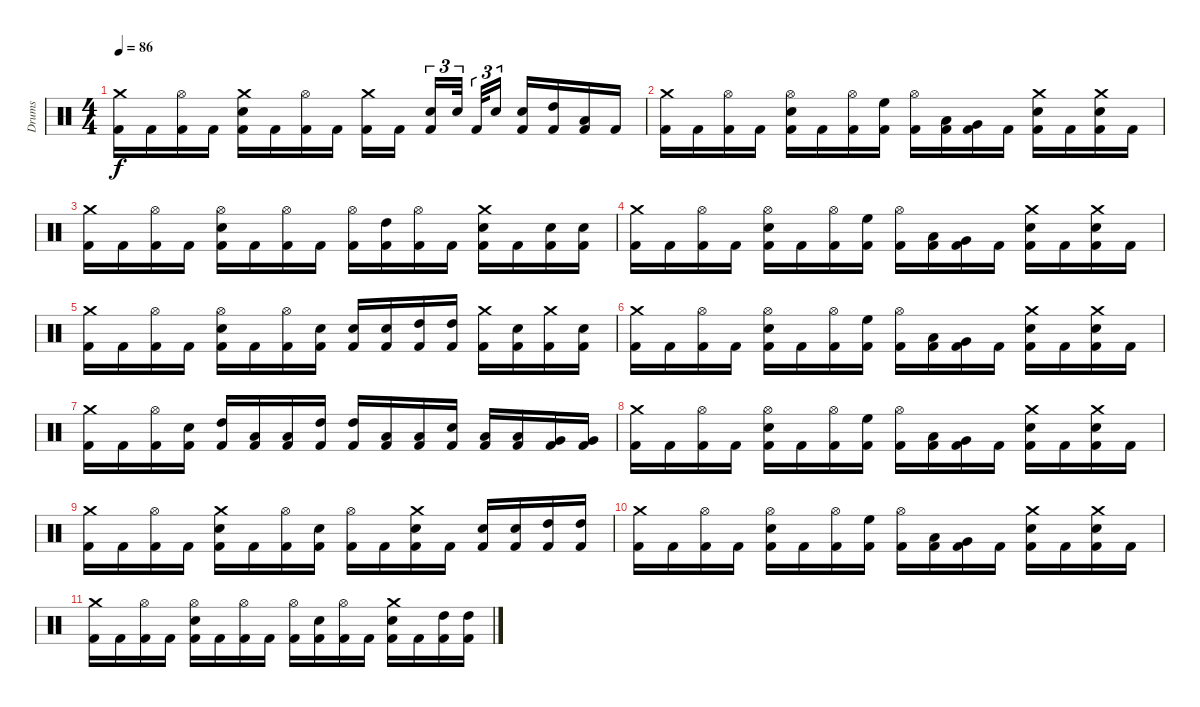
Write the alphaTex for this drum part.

\track ("Drums" "Drums") {instrument percussion}
\staff {score}
\articulation defaults
\ts (4 4)
\tempo 86
\clef neutral
\ks c
("Crash medium (hit)" "Kick (hit) 2").16{dy f} "Kick (hit) 2".16 ("Hi-Hat (open)" "Kick (hit) 2").16 "Kick (hit) 2".16 ("Snare (hit) 2" "Crash medium (hit)" "Kick (hit) 2").16 "Kick (hit) 2".16 ("Hi-Hat (open)" "Kick (hit) 2").16 "Kick (hit) 2".16 ("Crash medium (hit)" "Kick (hit) 2").16 "Kick (hit) 2".16{beam splitsecondary} ("Snare (hit) 2" "Kick (hit) 2").16{tu (3 2)} "Snare (hit) 2".32{tu (3 2) beam splitsecondary} "Kick (hit) 2".32{tu (3 2)} "Snare (hit) 2".16{tu (3 2)} ("Snare (hit) 2" "Kick (hit) 2").16 ("Kick (hit) 2" "High Tom (hit)").16 ("Kick (hit) 2" "Low Tom (hit)").16 "Kick (hit) 2".16 |
("Crash medium (hit)" "Kick (hit) 2").16 "Kick (hit) 2".16 ("Hi-Hat (open)" "Kick (hit) 2").16 "Kick (hit) 2".16 ("Hi-Hat (open)" "Snare (hit) 2" "Kick (hit) 2").16 "Kick (hit) 2".16 ("Hi-Hat (open)" "Kick (hit) 2").16 ("High Floor Tom (hit)" "Kick (hit) 2").16 ("Hi-Hat (open)" "Kick (hit) 2").16 ("Low Tom (hit)" "Kick (hit) 2").16 ("Very Low Tom (hit)" "Kick (hit) 2").16 "Kick (hit) 2".16 ("Crash medium (hit)" "Snare (hit) 2" "Kick (hit) 2").16 "Kick (hit) 2".16 ("Crash medium (hit)" "Snare (hit) 2" "Kick (hit) 2").16 "Kick (hit) 2".16 |
("Crash medium (hit)" "Kick (hit) 2").16{volume 16} "Kick (hit) 2".16 ("Hi-Hat (open)" "Kick (hit) 2").16{volume 16} "Kick (hit) 2".16{volume 16} ("Snare (hit) 2" "Hi-Hat (open)" "Kick (hit) 2").16{volume 16} "Kick (hit) 2".16{volume 15} ("Hi-Hat (open)" "Kick (hit) 2").16{volume 15} "Kick (hit) 2".16{volume 15} ("Hi-Hat (open)" "Kick (hit) 2").16{volume 15} ("High Tom (hit)" "Kick (hit) 2").16 ("Hi-Hat (open)" "Kick (hit) 2").16{volume 15} "Kick (hit) 2".16{volume 15} ("Snare (hit) 2" "Crash medium (hit)" "Kick (hit) 2").16{volume 15} "Kick (hit) 2".16{volume 14} ("Snare (hit) 2" "Kick (hit) 2").16{volume 14} ("Snare (hit) 2" "Kick (hit) 2").16{volume 14} |
("Crash medium (hit)" "Kick (hit) 2").16{volume 14} "Kick (hit) 2".16{volume 14} ("Hi-Hat (open)" "Kick (hit) 2").16 "Kick (hit) 2".16{volume 14} ("Hi-Hat (open)" "Snare (hit) 2" "Kick (hit) 2").16{volume 14} "Kick (hit) 2".16{volume 14} ("Hi-Hat (open)" "Kick (hit) 2").16{volume 14} ("High Floor Tom (hit)" "Kick (hit) 2").16{volume 13} ("Hi-Hat (open)" "Kick (hit) 2").16{volume 13} ("Low Tom (hit)" "Kick (hit) 2").16{volume 13} ("Very Low Tom (hit)" "Kick (hit) 2").16 "Kick (hit) 2".16{volume 13} ("Crash medium (hit)" "Snare (hit) 2" "Kick (hit) 2").16{volume 13} "Kick (hit) 2".16{volume 13} ("Crash medium (hit)" "Snare (hit) 2" "Kick (hit) 2").16{volume 13} "Kick (hit) 2".16{volume 12} |
("Crash medium (hit)" "Kick (hit) 2").16{volume 12} "Kick (hit) 2".16{volume 12} ("Hi-Hat (open)" "Kick (hit) 2").16{volume 12} "Kick (hit) 2".16 ("Snare (hit) 2" "Hi-Hat (open)" "Kick (hit) 2").16{volume 12} "Kick (hit) 2".16{volume 12} ("Hi-Hat (open)" "Kick (hit) 2").16{volume 12} ("Snare (hit) 2" "Kick (hit) 2").16{volume 12} ("Snare (hit) 2" "Kick (hit) 2").16{volume 12} ("Snare (hit) 2" "Kick (hit) 2").16{volume 11} ("High Tom (hit)" "Kick (hit) 2").16{volume 11} ("High Tom (hit)" "Kick (hit) 2").16 ("Crash medium (hit)" "Kick (hit) 2").16{volume 11} ("Snare (hit) 2" "Kick (hit) 2").16{volume 11} ("Crash medium (hit)" "Kick (hit) 2").16{volume 11} ("Snare (hit) 2" "Kick (hit) 2").16{volume 11} |
("Crash medium (hit)" "Kick (hit) 2").16{volume 11} "Kick (hit) 2".16{volume 10} ("Hi-Hat (open)" "Kick (hit) 2").16{volume 10} "Kick (hit) 2".16{volume 10} ("Hi-Hat (open)" "Snare (hit) 2" "Kick (hit) 2").16 "Kick (hit) 2".16{volume 10} ("Hi-Hat (open)" "Kick (hit) 2").16{volume 10} ("High Floor Tom (hit)" "Kick (hit) 2").16{volume 10} ("Hi-Hat (open)" "Kick (hit) 2").16{volume 10} ("Low Tom (hit)" "Kick (hit) 2").16{volume 10} ("Very Low Tom (hit)" "Kick (hit) 2").16{volume 10} "Kick (hit) 2".16{volume 9} ("Crash medium (hit)" "Snare (hit) 2" "Kick (hit) 2").16 "Kick (hit) 2".16{volume 9} ("Crash medium (hit)" "Snare (hit) 2" "Kick (hit) 2").16{volume 9} "Kick (hit) 2".16{volume 9} |
("Crash medium (hit)" "Kick (hit) 2").16{volume 9} "Kick (hit) 2".16{volume 9} ("Hi-Hat (open)" "Kick (hit) 2").16{volume 9} ("Snare (hit) 2" "Kick (hit) 2").16{volume 8} ("High Tom (hit)" "Kick (hit) 2").16{volume 8} ("Low Tom (hit)" "Kick (hit) 2").16 ("Low Tom (hit)" "Kick (hit) 2").16{volume 8} ("High Tom (hit)" "Kick (hit) 2").16{volume 8} ("High Tom (hit)" "Kick (hit) 2").16{volume 8} ("Low Tom (hit)" "Kick (hit) 2").16{volume 8} ("Low Tom (hit)" "Kick (hit) 2").16{volume 8} ("Snare (hit) 2" "Kick (hit) 2").16{volume 8} ("Low Tom (hit)" "Kick (hit) 2").16{volume 8} ("Low Tom (hit)" "Kick (hit) 2").16 ("Very Low Tom (hit)" "Kick (hit) 2").16{volume 7} ("Very Low Tom (hit)" "Kick (hit) 2").16{volume 7} |
("Crash medium (hit)" "Kick (hit) 2").16{volume 7} "Kick (hit) 2".16{volume 7} ("Hi-Hat (open)" "Kick (hit) 2").16{volume 7} "Kick (hit) 2".16{volume 7} ("Hi-Hat (open)" "Snare (hit) 2" "Kick (hit) 2").16{volume 7} "Kick (hit) 2".16{volume 6} ("Hi-Hat (open)" "Kick (hit) 2").16 ("High Floor Tom (hit)" "Kick (hit) 2").16{volume 6} ("Hi-Hat (open)" "Kick (hit) 2").16{volume 6} ("Low Tom (hit)" "Kick (hit) 2").16{volume 6} ("Very Low Tom (hit)" "Kick (hit) 2").16{volume 6} "Kick (hit) 2".16{volume 6} ("Crash medium (hit)" "Snare (hit) 2" "Kick (hit) 2").16{volume 6} "Kick (hit) 2".16{volume 6} ("Crash medium (hit)" "Snare (hit) 2" "Kick (hit) 2").16 "Kick (hit) 2".16{volume 6} |
("Crash medium (hit)" "Kick (hit) 2").16{volume 5} "Kick (hit) 2".16{volume 5} ("Hi-Hat (open)" "Kick (hit) 2").16{volume 5} "Kick (hit) 2".16{volume 5} ("Crash medium (hit)" "Snare (hit) 2" "Kick (hit) 2").16{volume 5} "Kick (hit) 2".16{volume 5} ("Hi-Hat (open)" "Kick (hit) 2").16{volume 5} ("Snare (hit) 2" "Kick (hit) 2").16 ("Hi-Hat (open)" "Kick (hit) 2").16{volume 4} "Kick (hit) 2".16{volume 4} ("Crash medium (hit)" "Snare (hit) 2" "Kick (hit) 2").16{volume 4} "Kick (hit) 2".16{volume 4} ("Snare (hit) 2" "Kick (hit) 2").16{volume 4} ("Snare (hit) 2" "Kick (hit) 2").16{volume 4} ("High Tom (hit)" "Kick (hit) 2").16{volume 4} ("High Tom (hit)" "Kick (hit) 2").16 |
("Crash medium (hit)" "Kick (hit) 2").16{volume 4} "Kick (hit) 2".16{volume 4} ("Hi-Hat (open)" "Kick (hit) 2").16{volume 3} "Kick (hit) 2".16{volume 3} ("Hi-Hat (open)" "Snare (hit) 2" "Kick (hit) 2").16{volume 3} "Kick (hit) 2".16{volume 3} ("Hi-Hat (open)" "Kick (hit) 2").16{volume 3} ("High Floor Tom (hit)" "Kick (hit) 2").16{volume 3} ("Hi-Hat (open)" "Kick (hit) 2").16 ("Low Tom (hit)" "Kick (hit) 2").16{volume 3} ("Very Low Tom (hit)" "Kick (hit) 2").16{volume 2} "Kick (hit) 2".16{volume 2} ("Crash medium (hit)" "Snare (hit) 2" "Kick (hit) 2").16{volume 2} "Kick (hit) 2".16{volume 2} ("Crash medium (hit)" "Snare (hit) 2" "Kick (hit) 2").16{volume 2} "Kick (hit) 2".16{volume 2} |
("Crash medium (hit)" "Kick (hit) 2").16 "Kick (hit) 2".16{volume 2} ("Hi-Hat (open)" "Kick (hit) 2").16{volume 2} "Kick (hit) 2".16{volume 2} ("Snare (hit) 2" "Hi-Hat (open)" "Kick (hit) 2").16{volume 1} "Kick (hit) 2".16{volume 1} ("Hi-Hat (open)" "Kick (hit) 2").16{volume 1} "Kick (hit) 2".16{volume 1} ("Hi-Hat (open)" "Kick (hit) 2").16{volume 1} ("Snare (hit) 2" "Kick (hit) 2").16 ("Hi-Hat (open)" "Kick (hit) 2").16{volume 1} "Kick (hit) 2".16{volume 1} ("Snare (hit) 2" "Crash medium (hit)" "Kick (hit) 2").16{volume 0} "Kick (hit) 2".16{volume 0} ("High Tom (hit)" "Kick (hit) 2").16{volume 0} ("High Tom (hit)" "Kick (hit) 2").16{volume 0}
